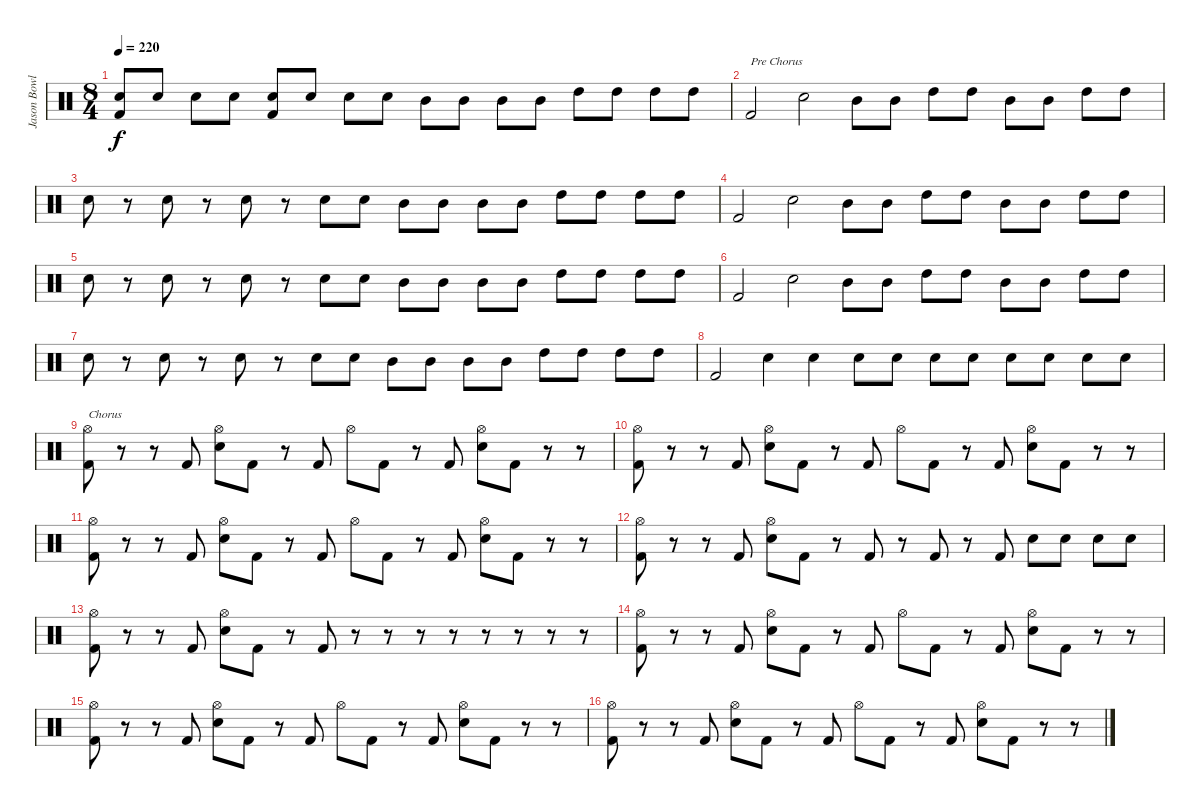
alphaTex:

\track ("Jason Bowld" "Jason Bowl") {instrument percussion}
\staff {score}
\articulation defaults
\ts (8 4)
\tempo 220
\clef neutral
\ks c
("Snare (hit) 2" "Kick (hit) 2").8{dy f} "Snare (hit) 2".8 "Snare (hit) 2".8 "Snare (hit) 2".8 ("Snare (hit) 2" "Kick (hit) 2").8 "Snare (hit) 2".8 "Snare (hit) 2".8 "Snare (hit) 2".8 "Mid Tom (hit)".8 "Mid Tom (hit)".8 "Mid Tom (hit)".8 "Mid Tom (hit)".8 "High Tom (hit)".8 "High Tom (hit)".8 "High Tom (hit)".8 "High Tom (hit)".8 |
"Kick (hit) 2".2{txt "Pre Chorus"} "Snare (hit) 2".2 "Mid Tom (hit)".8 "Mid Tom (hit)".8 "High Tom (hit)".8 "High Tom (hit)".8 "Mid Tom (hit)".8 "Mid Tom (hit)".8 "High Tom (hit)".8 "High Tom (hit)".8 |
"Snare (hit) 2".8 r.8 "Snare (hit) 2".8 r.8 "Snare (hit) 2".8 r.8 "Snare (hit) 2".8 "Snare (hit) 2".8 "Mid Tom (hit)".8 "Mid Tom (hit)".8 "Mid Tom (hit)".8 "Mid Tom (hit)".8 "High Tom (hit)".8 "High Tom (hit)".8 "High Tom (hit)".8 "High Tom (hit)".8 |
"Kick (hit) 2".2 "Snare (hit) 2".2 "Mid Tom (hit)".8 "Mid Tom (hit)".8 "High Tom (hit)".8 "High Tom (hit)".8 "Mid Tom (hit)".8 "Mid Tom (hit)".8 "High Tom (hit)".8 "High Tom (hit)".8 |
"Snare (hit) 2".8 r.8 "Snare (hit) 2".8 r.8 "Snare (hit) 2".8 r.8 "Snare (hit) 2".8 "Snare (hit) 2".8 "Mid Tom (hit)".8 "Mid Tom (hit)".8 "Mid Tom (hit)".8 "Mid Tom (hit)".8 "High Tom (hit)".8 "High Tom (hit)".8 "High Tom (hit)".8 "High Tom (hit)".8 |
"Kick (hit) 2".2 "Snare (hit) 2".2 "Mid Tom (hit)".8 "Mid Tom (hit)".8 "High Tom (hit)".8 "High Tom (hit)".8 "Mid Tom (hit)".8 "Mid Tom (hit)".8 "High Tom (hit)".8 "High Tom (hit)".8 |
"Snare (hit) 2".8 r.8 "Snare (hit) 2".8 r.8 "Snare (hit) 2".8 r.8 "Snare (hit) 2".8 "Snare (hit) 2".8 "Mid Tom (hit)".8 "Mid Tom (hit)".8 "Mid Tom (hit)".8 "Mid Tom (hit)".8 "High Tom (hit)".8 "High Tom (hit)".8 "High Tom (hit)".8 "High Tom (hit)".8 |
"Kick (hit) 2".2 "Snare (hit) 2".4 "Snare (hit) 2".4 "Snare (hit) 2".8 "Snare (hit) 2".8 "Snare (hit) 2".8 "Snare (hit) 2".8 "Snare (hit) 2".8 "Snare (hit) 2".8 "Snare (hit) 2".8 "Snare (hit) 2".8 |
("Hi-Hat (open)" "Kick (hit) 2").8{txt "Chorus"} r.8 r.8 "Kick (hit) 2".8 ("Hi-Hat (open)" "Snare (hit) 2").8 "Kick (hit) 2".8 r.8 "Kick (hit) 2".8 "Hi-Hat (open)".8 "Kick (hit) 2".8 r.8 "Kick (hit) 2".8 ("Hi-Hat (open)" "Snare (hit) 2").8 "Kick (hit) 2".8 r.8 r.8 |
("Hi-Hat (open)" "Kick (hit) 2").8 r.8 r.8 "Kick (hit) 2".8 ("Hi-Hat (open)" "Snare (hit) 2").8 "Kick (hit) 2".8 r.8 "Kick (hit) 2".8 "Hi-Hat (open)".8 "Kick (hit) 2".8 r.8 "Kick (hit) 2".8 ("Hi-Hat (open)" "Snare (hit) 2").8 "Kick (hit) 2".8 r.8 r.8 |
("Hi-Hat (open)" "Kick (hit) 2").8 r.8 r.8 "Kick (hit) 2".8 ("Hi-Hat (open)" "Snare (hit) 2").8 "Kick (hit) 2".8 r.8 "Kick (hit) 2".8 "Hi-Hat (open)".8 "Kick (hit) 2".8 r.8 "Kick (hit) 2".8 ("Hi-Hat (open)" "Snare (hit) 2").8 "Kick (hit) 2".8 r.8 r.8 |
("Hi-Hat (open)" "Kick (hit) 2").8 r.8 r.8 "Kick (hit) 2".8 ("Hi-Hat (open)" "Snare (hit) 2").8 "Kick (hit) 2".8 r.8 "Kick (hit) 2".8 r.8 "Kick (hit) 2".8 r.8 "Kick (hit) 2".8 "Snare (hit) 2".8 "Snare (hit) 2".8 "Snare (hit) 2".8 "Snare (hit) 2".8 |
("Hi-Hat (open)" "Kick (hit) 2").8 r.8 r.8 "Kick (hit) 2".8 ("Hi-Hat (open)" "Snare (hit) 2").8 "Kick (hit) 2".8 r.8 "Kick (hit) 2".8 r.8 r.8 r.8 r.8 r.8 r.8 r.8 r.8 |
("Hi-Hat (open)" "Kick (hit) 2").8 r.8 r.8 "Kick (hit) 2".8 ("Hi-Hat (open)" "Snare (hit) 2").8 "Kick (hit) 2".8 r.8 "Kick (hit) 2".8 "Hi-Hat (open)".8 "Kick (hit) 2".8 r.8 "Kick (hit) 2".8 ("Hi-Hat (open)" "Snare (hit) 2").8 "Kick (hit) 2".8 r.8 r.8 |
("Hi-Hat (open)" "Kick (hit) 2").8 r.8 r.8 "Kick (hit) 2".8 ("Hi-Hat (open)" "Snare (hit) 2").8 "Kick (hit) 2".8 r.8 "Kick (hit) 2".8 "Hi-Hat (open)".8 "Kick (hit) 2".8 r.8 "Kick (hit) 2".8 ("Hi-Hat (open)" "Snare (hit) 2").8 "Kick (hit) 2".8 r.8 r.8 |
("Hi-Hat (open)" "Kick (hit) 2").8 r.8 r.8 "Kick (hit) 2".8 ("Hi-Hat (open)" "Snare (hit) 2").8 "Kick (hit) 2".8 r.8 "Kick (hit) 2".8 "Hi-Hat (open)".8 "Kick (hit) 2".8 r.8 "Kick (hit) 2".8 ("Hi-Hat (open)" "Snare (hit) 2").8 "Kick (hit) 2".8 r.8 r.8
